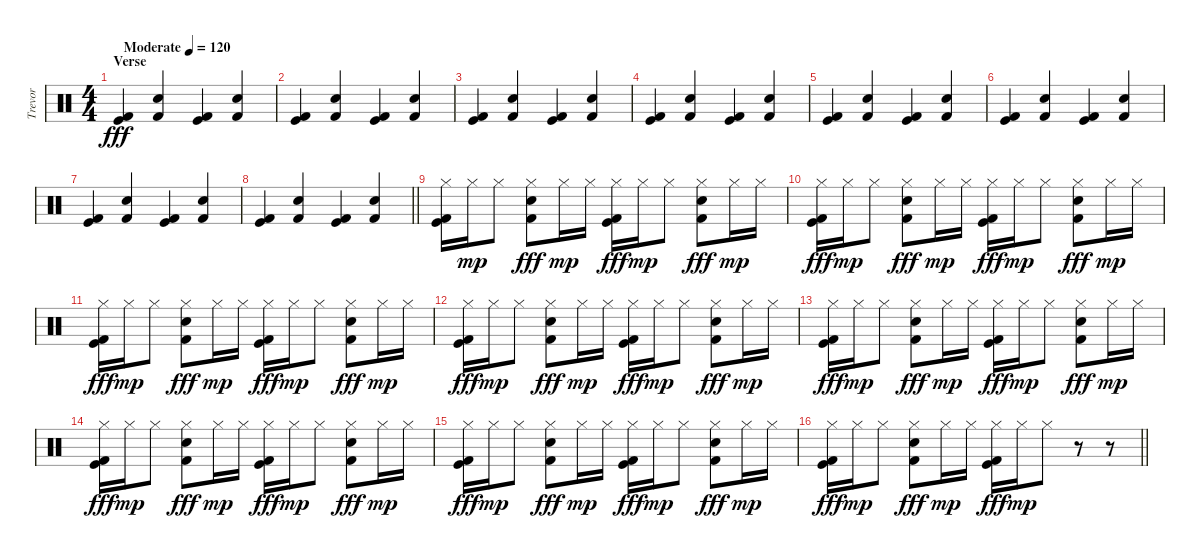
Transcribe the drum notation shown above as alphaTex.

\track ("Trevor" "Trevor") {instrument percussion}
\staff {score}
\articulation defaults
\ts (4 4)
\section ("" "Verse")
\tempo (120 "Moderate")
\clef neutral
\ks c
("Kick (hit)" "Kick (hit) 2").4{dy fff} ("Kick (hit) 2" "Snare (hit) 2").4 ("Kick (hit)" "Kick (hit) 2").4 ("Kick (hit) 2" "Snare (hit) 2").4 |
("Kick (hit)" "Kick (hit) 2").4 ("Kick (hit) 2" "Snare (hit) 2").4 ("Kick (hit)" "Kick (hit) 2").4 ("Kick (hit) 2" "Snare (hit) 2").4 |
("Kick (hit)" "Kick (hit) 2").4 ("Kick (hit) 2" "Snare (hit) 2").4 ("Kick (hit)" "Kick (hit) 2").4 ("Kick (hit) 2" "Snare (hit) 2").4 |
("Kick (hit)" "Kick (hit) 2").4 ("Kick (hit) 2" "Snare (hit) 2").4 ("Kick (hit)" "Kick (hit) 2").4 ("Kick (hit) 2" "Snare (hit) 2").4 |
("Kick (hit)" "Kick (hit) 2").4 ("Kick (hit) 2" "Snare (hit) 2").4 ("Kick (hit)" "Kick (hit) 2").4 ("Kick (hit) 2" "Snare (hit) 2").4 |
("Kick (hit)" "Kick (hit) 2").4 ("Kick (hit) 2" "Snare (hit) 2").4 ("Kick (hit)" "Kick (hit) 2").4 ("Kick (hit) 2" "Snare (hit) 2").4 |
("Kick (hit)" "Kick (hit) 2").4 ("Kick (hit) 2" "Snare (hit) 2").4 ("Kick (hit)" "Kick (hit) 2").4 ("Kick (hit) 2" "Snare (hit) 2").4 |
\barLineRight lightlight
("Kick (hit)" "Kick (hit) 2").4 ("Kick (hit) 2" "Snare (hit) 2").4 ("Kick (hit)" "Kick (hit) 2").4 ("Kick (hit) 2" "Snare (hit) 2").4 |
\section ("" "")
("Hi-Hat (closed)" "Kick (hit)" "Kick (hit) 2").16 "Hi-Hat (closed)".16{dy mp} "Hi-Hat (closed)".8 ("Hi-Hat (closed)" "Kick (hit) 2" "Snare (hit) 2").8{dy fff} "Hi-Hat (closed)".16{dy mp} "Hi-Hat (closed)".16 ("Hi-Hat (closed)" "Kick (hit)" "Kick (hit) 2").16{dy fff} "Hi-Hat (closed)".16{dy mp} "Hi-Hat (closed)".8 ("Hi-Hat (closed)" "Kick (hit) 2" "Snare (hit) 2").8{dy fff} "Hi-Hat (closed)".16{dy mp} "Hi-Hat (closed)".16 |
("Hi-Hat (closed)" "Kick (hit)" "Kick (hit) 2").16{dy fff} "Hi-Hat (closed)".16{dy mp} "Hi-Hat (closed)".8 ("Hi-Hat (closed)" "Kick (hit) 2" "Snare (hit) 2").8{dy fff} "Hi-Hat (closed)".16{dy mp} "Hi-Hat (closed)".16 ("Hi-Hat (closed)" "Kick (hit)" "Kick (hit) 2").16{dy fff} "Hi-Hat (closed)".16{dy mp} "Hi-Hat (closed)".8 ("Hi-Hat (closed)" "Kick (hit) 2" "Snare (hit) 2").8{dy fff} "Hi-Hat (closed)".16{dy mp} "Hi-Hat (closed)".16 |
("Hi-Hat (closed)" "Kick (hit)" "Kick (hit) 2").16{dy fff} "Hi-Hat (closed)".16{dy mp} "Hi-Hat (closed)".8 ("Hi-Hat (closed)" "Kick (hit) 2" "Snare (hit) 2").8{dy fff} "Hi-Hat (closed)".16{dy mp} "Hi-Hat (closed)".16 ("Hi-Hat (closed)" "Kick (hit)" "Kick (hit) 2").16{dy fff} "Hi-Hat (closed)".16{dy mp} "Hi-Hat (closed)".8 ("Hi-Hat (closed)" "Kick (hit) 2" "Snare (hit) 2").8{dy fff} "Hi-Hat (closed)".16{dy mp} "Hi-Hat (closed)".16 |
("Hi-Hat (closed)" "Kick (hit)" "Kick (hit) 2").16{dy fff} "Hi-Hat (closed)".16{dy mp} "Hi-Hat (closed)".8 ("Hi-Hat (closed)" "Kick (hit) 2" "Snare (hit) 2").8{dy fff} "Hi-Hat (closed)".16{dy mp} "Hi-Hat (closed)".16 ("Hi-Hat (closed)" "Kick (hit)" "Kick (hit) 2").16{dy fff} "Hi-Hat (closed)".16{dy mp} "Hi-Hat (closed)".8 ("Hi-Hat (closed)" "Kick (hit) 2" "Snare (hit) 2").8{dy fff} "Hi-Hat (closed)".16{dy mp} "Hi-Hat (closed)".16 |
("Hi-Hat (closed)" "Kick (hit)" "Kick (hit) 2").16{dy fff} "Hi-Hat (closed)".16{dy mp} "Hi-Hat (closed)".8 ("Hi-Hat (closed)" "Kick (hit) 2" "Snare (hit) 2").8{dy fff} "Hi-Hat (closed)".16{dy mp} "Hi-Hat (closed)".16 ("Hi-Hat (closed)" "Kick (hit)" "Kick (hit) 2").16{dy fff} "Hi-Hat (closed)".16{dy mp} "Hi-Hat (closed)".8 ("Hi-Hat (closed)" "Kick (hit) 2" "Snare (hit) 2").8{dy fff} "Hi-Hat (closed)".16{dy mp} "Hi-Hat (closed)".16 |
("Hi-Hat (closed)" "Kick (hit)" "Kick (hit) 2").16{dy fff} "Hi-Hat (closed)".16{dy mp} "Hi-Hat (closed)".8 ("Hi-Hat (closed)" "Kick (hit) 2" "Snare (hit) 2").8{dy fff} "Hi-Hat (closed)".16{dy mp} "Hi-Hat (closed)".16 ("Hi-Hat (closed)" "Kick (hit)" "Kick (hit) 2").16{dy fff} "Hi-Hat (closed)".16{dy mp} "Hi-Hat (closed)".8 ("Hi-Hat (closed)" "Kick (hit) 2" "Snare (hit) 2").8{dy fff} "Hi-Hat (closed)".16{dy mp} "Hi-Hat (closed)".16 |
("Hi-Hat (closed)" "Kick (hit)" "Kick (hit) 2").16{dy fff} "Hi-Hat (closed)".16{dy mp} "Hi-Hat (closed)".8 ("Hi-Hat (closed)" "Kick (hit) 2" "Snare (hit) 2").8{dy fff} "Hi-Hat (closed)".16{dy mp} "Hi-Hat (closed)".16 ("Hi-Hat (closed)" "Kick (hit)" "Kick (hit) 2").16{dy fff} "Hi-Hat (closed)".16{dy mp} "Hi-Hat (closed)".8 ("Hi-Hat (closed)" "Kick (hit) 2" "Snare (hit) 2").8{dy fff} "Hi-Hat (closed)".16{dy mp} "Hi-Hat (closed)".16 |
\barLineRight lightlight
("Hi-Hat (closed)" "Kick (hit)" "Kick (hit) 2").16{dy fff} "Hi-Hat (closed)".16{dy mp} "Hi-Hat (closed)".8 ("Hi-Hat (closed)" "Kick (hit) 2" "Snare (hit) 2").8{dy fff} "Hi-Hat (closed)".16{dy mp} "Hi-Hat (closed)".16 ("Hi-Hat (closed)" "Kick (hit)" "Kick (hit) 2").16{dy fff} "Hi-Hat (closed)".16{dy mp} "Hi-Hat (closed)".8 r.8 r.8
